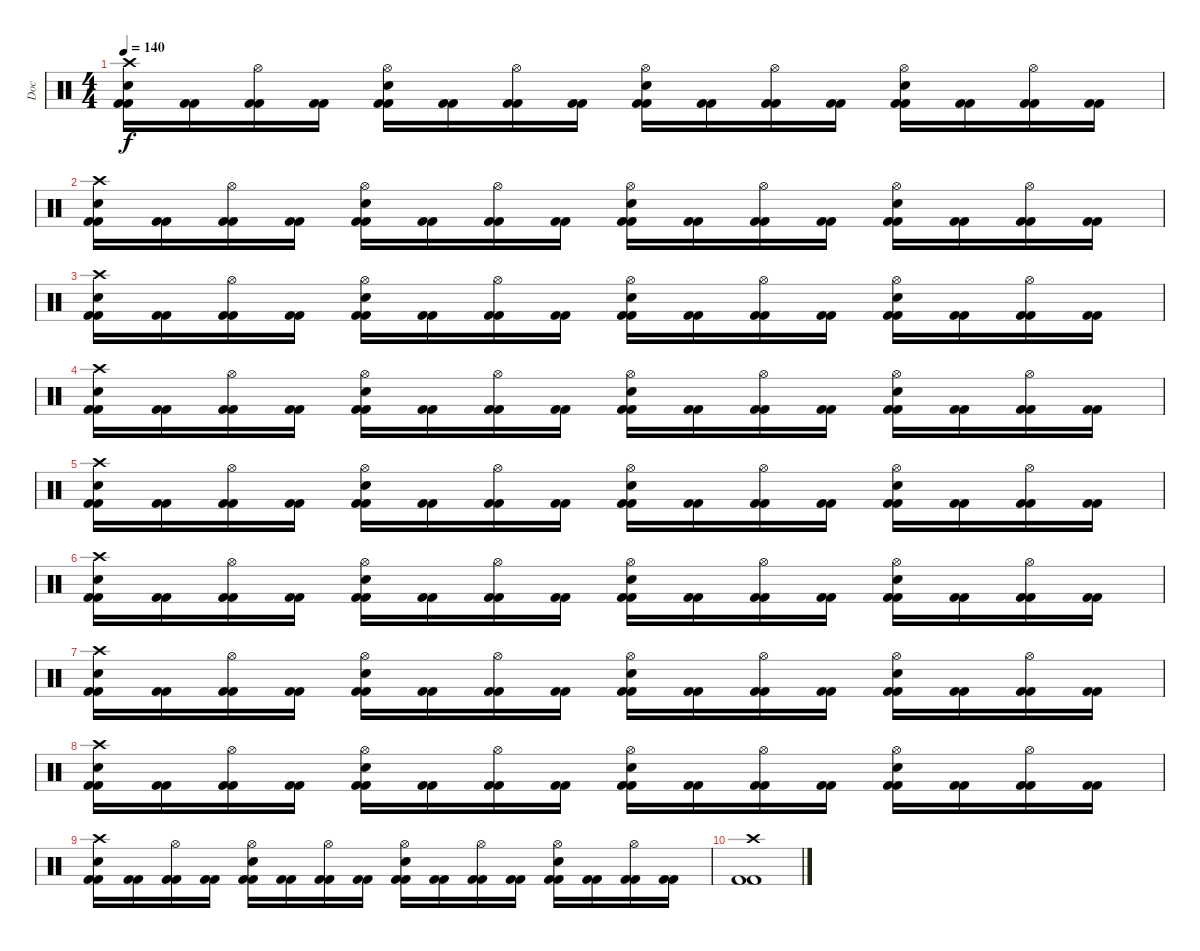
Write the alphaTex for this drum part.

\track ("Doc" "Doc") {instrument percussion}
\staff {score}
\articulation defaults
\ts (4 4)
\tempo 140
\clef neutral
\ks c
("Kick (hit) 2" "Crash high (hit)" "Electric Snare (hit)" "Kick (hit) 2").16{dy f} ("Kick (hit) 2" "Kick (hit) 2").16 ("Kick (hit) 2" "Hi-Hat (open)" "Kick (hit) 2").16 ("Kick (hit) 2" "Kick (hit) 2").16 ("Kick (hit) 2" "Hi-Hat (open)" "Electric Snare (hit)" "Kick (hit) 2").16 ("Kick (hit) 2" "Kick (hit) 2").16 ("Kick (hit) 2" "Hi-Hat (open)" "Kick (hit) 2").16 ("Kick (hit) 2" "Kick (hit) 2").16 ("Kick (hit) 2" "Hi-Hat (open)" "Electric Snare (hit)" "Kick (hit) 2").16 ("Kick (hit) 2" "Kick (hit) 2").16 ("Kick (hit) 2" "Hi-Hat (open)" "Kick (hit) 2").16 ("Kick (hit) 2" "Kick (hit) 2").16 ("Kick (hit) 2" "Hi-Hat (open)" "Electric Snare (hit)" "Kick (hit) 2").16 ("Kick (hit) 2" "Kick (hit) 2").16 ("Kick (hit) 2" "Hi-Hat (open)" "Kick (hit) 2").16 ("Kick (hit) 2" "Kick (hit) 2").16 |
("Kick (hit) 2" "Crash high (hit)" "Electric Snare (hit)" "Kick (hit) 2").16 ("Kick (hit) 2" "Kick (hit) 2").16 ("Kick (hit) 2" "Hi-Hat (open)" "Kick (hit) 2").16 ("Kick (hit) 2" "Kick (hit) 2").16 ("Kick (hit) 2" "Hi-Hat (open)" "Electric Snare (hit)" "Kick (hit) 2").16 ("Kick (hit) 2" "Kick (hit) 2").16 ("Kick (hit) 2" "Hi-Hat (open)" "Kick (hit) 2").16 ("Kick (hit) 2" "Kick (hit) 2").16 ("Kick (hit) 2" "Hi-Hat (open)" "Electric Snare (hit)" "Kick (hit) 2").16 ("Kick (hit) 2" "Kick (hit) 2").16 ("Kick (hit) 2" "Hi-Hat (open)" "Kick (hit) 2").16 ("Kick (hit) 2" "Kick (hit) 2").16 ("Kick (hit) 2" "Hi-Hat (open)" "Electric Snare (hit)" "Kick (hit) 2").16 ("Kick (hit) 2" "Kick (hit) 2").16 ("Kick (hit) 2" "Hi-Hat (open)" "Kick (hit) 2").16 ("Kick (hit) 2" "Kick (hit) 2").16 |
("Kick (hit) 2" "Crash high (hit)" "Electric Snare (hit)" "Kick (hit) 2").16 ("Kick (hit) 2" "Kick (hit) 2").16 ("Kick (hit) 2" "Hi-Hat (open)" "Kick (hit) 2").16 ("Kick (hit) 2" "Kick (hit) 2").16 ("Kick (hit) 2" "Hi-Hat (open)" "Electric Snare (hit)" "Kick (hit) 2").16 ("Kick (hit) 2" "Kick (hit) 2").16 ("Kick (hit) 2" "Hi-Hat (open)" "Kick (hit) 2").16 ("Kick (hit) 2" "Kick (hit) 2").16 ("Kick (hit) 2" "Hi-Hat (open)" "Electric Snare (hit)" "Kick (hit) 2").16 ("Kick (hit) 2" "Kick (hit) 2").16 ("Kick (hit) 2" "Hi-Hat (open)" "Kick (hit) 2").16 ("Kick (hit) 2" "Kick (hit) 2").16 ("Kick (hit) 2" "Hi-Hat (open)" "Electric Snare (hit)" "Kick (hit) 2").16 ("Kick (hit) 2" "Kick (hit) 2").16 ("Kick (hit) 2" "Hi-Hat (open)" "Kick (hit) 2").16 ("Kick (hit) 2" "Kick (hit) 2").16 |
("Kick (hit) 2" "Crash high (hit)" "Electric Snare (hit)" "Kick (hit) 2").16 ("Kick (hit) 2" "Kick (hit) 2").16 ("Kick (hit) 2" "Hi-Hat (open)" "Kick (hit) 2").16 ("Kick (hit) 2" "Kick (hit) 2").16 ("Kick (hit) 2" "Hi-Hat (open)" "Electric Snare (hit)" "Kick (hit) 2").16 ("Kick (hit) 2" "Kick (hit) 2").16 ("Kick (hit) 2" "Hi-Hat (open)" "Kick (hit) 2").16 ("Kick (hit) 2" "Kick (hit) 2").16 ("Kick (hit) 2" "Hi-Hat (open)" "Electric Snare (hit)" "Kick (hit) 2").16 ("Kick (hit) 2" "Kick (hit) 2").16 ("Kick (hit) 2" "Hi-Hat (open)" "Kick (hit) 2").16 ("Kick (hit) 2" "Kick (hit) 2").16 ("Kick (hit) 2" "Hi-Hat (open)" "Electric Snare (hit)" "Kick (hit) 2").16 ("Kick (hit) 2" "Kick (hit) 2").16 ("Kick (hit) 2" "Hi-Hat (open)" "Kick (hit) 2").16 ("Kick (hit) 2" "Kick (hit) 2").16 |
("Kick (hit) 2" "Crash high (hit)" "Electric Snare (hit)" "Kick (hit) 2").16 ("Kick (hit) 2" "Kick (hit) 2").16 ("Kick (hit) 2" "Hi-Hat (open)" "Kick (hit) 2").16 ("Kick (hit) 2" "Kick (hit) 2").16 ("Kick (hit) 2" "Hi-Hat (open)" "Electric Snare (hit)" "Kick (hit) 2").16 ("Kick (hit) 2" "Kick (hit) 2").16 ("Kick (hit) 2" "Hi-Hat (open)" "Kick (hit) 2").16 ("Kick (hit) 2" "Kick (hit) 2").16 ("Kick (hit) 2" "Hi-Hat (open)" "Electric Snare (hit)" "Kick (hit) 2").16 ("Kick (hit) 2" "Kick (hit) 2").16 ("Kick (hit) 2" "Hi-Hat (open)" "Kick (hit) 2").16 ("Kick (hit) 2" "Kick (hit) 2").16 ("Kick (hit) 2" "Hi-Hat (open)" "Electric Snare (hit)" "Kick (hit) 2").16 ("Kick (hit) 2" "Kick (hit) 2").16 ("Kick (hit) 2" "Hi-Hat (open)" "Kick (hit) 2").16 ("Kick (hit) 2" "Kick (hit) 2").16 |
("Kick (hit) 2" "Crash high (hit)" "Electric Snare (hit)" "Kick (hit) 2").16 ("Kick (hit) 2" "Kick (hit) 2").16 ("Kick (hit) 2" "Hi-Hat (open)" "Kick (hit) 2").16 ("Kick (hit) 2" "Kick (hit) 2").16 ("Kick (hit) 2" "Hi-Hat (open)" "Electric Snare (hit)" "Kick (hit) 2").16 ("Kick (hit) 2" "Kick (hit) 2").16 ("Kick (hit) 2" "Hi-Hat (open)" "Kick (hit) 2").16 ("Kick (hit) 2" "Kick (hit) 2").16 ("Kick (hit) 2" "Hi-Hat (open)" "Electric Snare (hit)" "Kick (hit) 2").16 ("Kick (hit) 2" "Kick (hit) 2").16 ("Kick (hit) 2" "Hi-Hat (open)" "Kick (hit) 2").16 ("Kick (hit) 2" "Kick (hit) 2").16 ("Kick (hit) 2" "Hi-Hat (open)" "Electric Snare (hit)" "Kick (hit) 2").16 ("Kick (hit) 2" "Kick (hit) 2").16 ("Kick (hit) 2" "Hi-Hat (open)" "Kick (hit) 2").16 ("Kick (hit) 2" "Kick (hit) 2").16 |
("Kick (hit) 2" "Crash high (hit)" "Electric Snare (hit)" "Kick (hit) 2").16 ("Kick (hit) 2" "Kick (hit) 2").16 ("Kick (hit) 2" "Hi-Hat (open)" "Kick (hit) 2").16 ("Kick (hit) 2" "Kick (hit) 2").16 ("Kick (hit) 2" "Hi-Hat (open)" "Electric Snare (hit)" "Kick (hit) 2").16 ("Kick (hit) 2" "Kick (hit) 2").16 ("Kick (hit) 2" "Hi-Hat (open)" "Kick (hit) 2").16 ("Kick (hit) 2" "Kick (hit) 2").16 ("Kick (hit) 2" "Hi-Hat (open)" "Electric Snare (hit)" "Kick (hit) 2").16 ("Kick (hit) 2" "Kick (hit) 2").16 ("Kick (hit) 2" "Hi-Hat (open)" "Kick (hit) 2").16 ("Kick (hit) 2" "Kick (hit) 2").16 ("Kick (hit) 2" "Hi-Hat (open)" "Electric Snare (hit)" "Kick (hit) 2").16 ("Kick (hit) 2" "Kick (hit) 2").16 ("Kick (hit) 2" "Hi-Hat (open)" "Kick (hit) 2").16 ("Kick (hit) 2" "Kick (hit) 2").16 |
("Kick (hit) 2" "Crash high (hit)" "Electric Snare (hit)" "Kick (hit) 2").16 ("Kick (hit) 2" "Kick (hit) 2").16 ("Kick (hit) 2" "Hi-Hat (open)" "Kick (hit) 2").16 ("Kick (hit) 2" "Kick (hit) 2").16 ("Kick (hit) 2" "Hi-Hat (open)" "Electric Snare (hit)" "Kick (hit) 2").16 ("Kick (hit) 2" "Kick (hit) 2").16 ("Kick (hit) 2" "Hi-Hat (open)" "Kick (hit) 2").16 ("Kick (hit) 2" "Kick (hit) 2").16 ("Kick (hit) 2" "Hi-Hat (open)" "Electric Snare (hit)" "Kick (hit) 2").16 ("Kick (hit) 2" "Kick (hit) 2").16 ("Kick (hit) 2" "Hi-Hat (open)" "Kick (hit) 2").16 ("Kick (hit) 2" "Kick (hit) 2").16 ("Kick (hit) 2" "Hi-Hat (open)" "Electric Snare (hit)" "Kick (hit) 2").16 ("Kick (hit) 2" "Kick (hit) 2").16 ("Kick (hit) 2" "Hi-Hat (open)" "Kick (hit) 2").16 ("Kick (hit) 2" "Kick (hit) 2").16 |
("Kick (hit) 2" "Crash high (hit)" "Electric Snare (hit)" "Kick (hit) 2").16 ("Kick (hit) 2" "Kick (hit) 2").16 ("Kick (hit) 2" "Hi-Hat (open)" "Kick (hit) 2").16 ("Kick (hit) 2" "Kick (hit) 2").16 ("Kick (hit) 2" "Hi-Hat (open)" "Electric Snare (hit)" "Kick (hit) 2").16 ("Kick (hit) 2" "Kick (hit) 2").16 ("Kick (hit) 2" "Hi-Hat (open)" "Kick (hit) 2").16 ("Kick (hit) 2" "Kick (hit) 2").16 ("Kick (hit) 2" "Hi-Hat (open)" "Electric Snare (hit)" "Kick (hit) 2").16 ("Kick (hit) 2" "Kick (hit) 2").16 ("Kick (hit) 2" "Hi-Hat (open)" "Kick (hit) 2").16 ("Kick (hit) 2" "Kick (hit) 2").16 ("Kick (hit) 2" "Hi-Hat (open)" "Electric Snare (hit)" "Kick (hit) 2").16 ("Kick (hit) 2" "Kick (hit) 2").16 ("Kick (hit) 2" "Hi-Hat (open)" "Kick (hit) 2").16 ("Kick (hit) 2" "Kick (hit) 2").16 |
("Crash high (hit)" "Kick (hit) 2" "Kick (hit) 2").1
